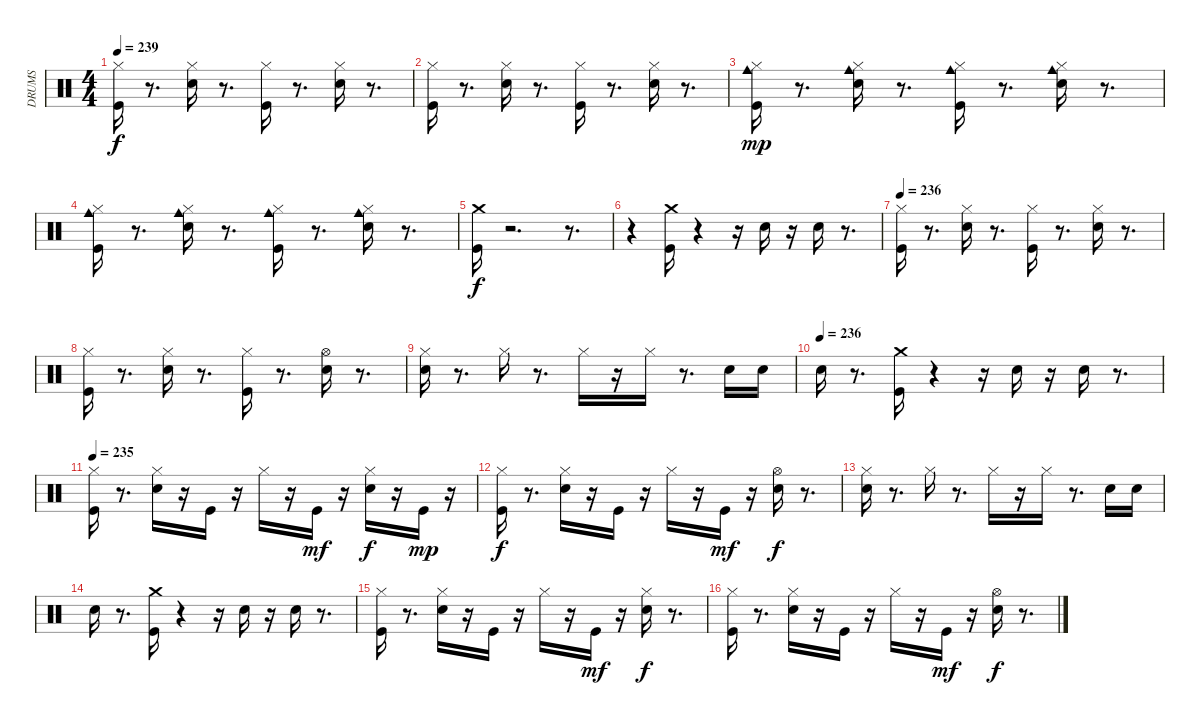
\track ("DRUMS" "DRUMS") {instrument percussion}
\staff {score}
\articulation defaults
\ts (4 4)
\tempo 239
\clef neutral
\ks c
("Hi-Hat (closed)" "Kick (hit)").16{dy f} r.8{d} ("Hi-Hat (closed)" "Electric Snare (hit)").16 r.8{d} ("Hi-Hat (closed)" "Kick (hit)").16 r.8{d} ("Electric Snare (hit)" "Hi-Hat (closed)").16 r.8{d} |
("Hi-Hat (closed)" "Kick (hit)").16 r.8{d} ("Hi-Hat (closed)" "Electric Snare (hit)").16 r.8{d} ("Hi-Hat (closed)" "Kick (hit)").16 r.8{d} ("Electric Snare (hit)" "Hi-Hat (closed)").16 r.8{d} |
("Cowbell medium (hit)" "Hi-Hat (closed)" "Kick (hit)").16{dy mp} r.8{d} ("Cowbell medium (hit)" "Hi-Hat (closed)" "Electric Snare (hit)").16 r.8{d} ("Cowbell medium (hit)" "Hi-Hat (closed)" "Kick (hit)").16 r.8{d} ("Cowbell medium (hit)" "Hi-Hat (closed)" "Electric Snare (hit)").16 r.8{d} |
("Kick (hit)" "Hi-Hat (closed)" "Cowbell medium (hit)").16 r.8{d} ("Cowbell medium (hit)" "Hi-Hat (closed)" "Electric Snare (hit)").16 r.8{d} ("Kick (hit)" "Hi-Hat (closed)" "Cowbell medium (hit)").16 r.8{d} ("Electric Snare (hit)" "Hi-Hat (closed)" "Cowbell medium (hit)").16 r.8{d} |
("Kick (hit)" "Crash medium (hit)").16{dy f} r.2{d} r.8{d} |
r.4 ("Crash medium (hit)" "Kick (hit)").16 r.4 r.16 "Electric Snare (hit)".16 r.16 "Electric Snare (hit)".16 r.8{d} |
\tempo 236
("Kick (hit)" "Hi-Hat (closed)").16 r.8{d} ("Electric Snare (hit)" "Hi-Hat (closed)").16 r.8{d} ("Kick (hit)" "Hi-Hat (closed)").16 r.8{d} ("Electric Snare (hit)" "Hi-Hat (closed)").16 r.8{d} |
("Kick (hit)" "Hi-Hat (closed)").16 r.8{d} ("Electric Snare (hit)" "Hi-Hat (closed)").16 r.8{d} ("Kick (hit)" "Hi-Hat (closed)").16 r.8{d} ("Electric Snare (hit)" "Hi-Hat (open)").16 r.8{d} |
("Electric Snare (hit)" "Hi-Hat (closed)").16 r.8{d} "Hi-Hat (closed)".16 r.8{d} "Hi-Hat (closed)".16 r.16 "Hi-Hat (closed)".16 r.8{d} "Electric Snare (hit)".16 "Electric Snare (hit)".16 |
\tempo (236)
"Electric Snare (hit)".16 r.8{d} ("Crash medium (hit)" "Kick (hit)").16 r.4 r.16 "Electric Snare (hit)".16 r.16 "Electric Snare (hit)".16 r.8{d} |
\tempo 235
("Hi-Hat (closed)" "Kick (hit)").16 r.8{d} ("Electric Snare (hit)" "Hi-Hat (closed)").16 r.16 "Kick (hit)".16 r.16 "Hi-Hat (closed)".16 r.16 "Kick (hit)".16{dy mf} r.16 ("Electric Snare (hit)" "Hi-Hat (closed)").16{dy f} r.16 "Kick (hit)".16{dy mp} r.16 |
("Hi-Hat (closed)" "Kick (hit)").16{dy f} r.8{d} ("Electric Snare (hit)" "Hi-Hat (closed)").16 r.16 "Kick (hit)".16 r.16 "Hi-Hat (closed)".16 r.16 "Kick (hit)".16{dy mf} r.16 ("Electric Snare (hit)" "Hi-Hat (open)").16{dy f} r.8{d} |
("Electric Snare (hit)" "Hi-Hat (closed)").16 r.8{d} "Hi-Hat (closed)".16 r.8{d} "Hi-Hat (closed)".16 r.16 "Hi-Hat (closed)".16 r.8{d} "Electric Snare (hit)".16 "Electric Snare (hit)".16 |
"Electric Snare (hit)".16 r.8{d} ("Crash medium (hit)" "Kick (hit)").16 r.4 r.16 "Electric Snare (hit)".16 r.16 "Electric Snare (hit)".16 r.8{d} |
("Hi-Hat (closed)" "Kick (hit)").16 r.8{d} ("Electric Snare (hit)" "Hi-Hat (closed)").16 r.16 "Kick (hit)".16 r.16 "Hi-Hat (closed)".16 r.16 "Kick (hit)".16{dy mf} r.16 ("Electric Snare (hit)" "Hi-Hat (closed)").16{dy f} r.8{d} |
("Hi-Hat (closed)" "Kick (hit)").16 r.8{d} ("Electric Snare (hit)" "Hi-Hat (closed)").16 r.16 "Kick (hit)".16 r.16 "Hi-Hat (closed)".16 r.16 "Kick (hit)".16{dy mf} r.16 ("Electric Snare (hit)" "Hi-Hat (open)").16{dy f} r.8{d}
